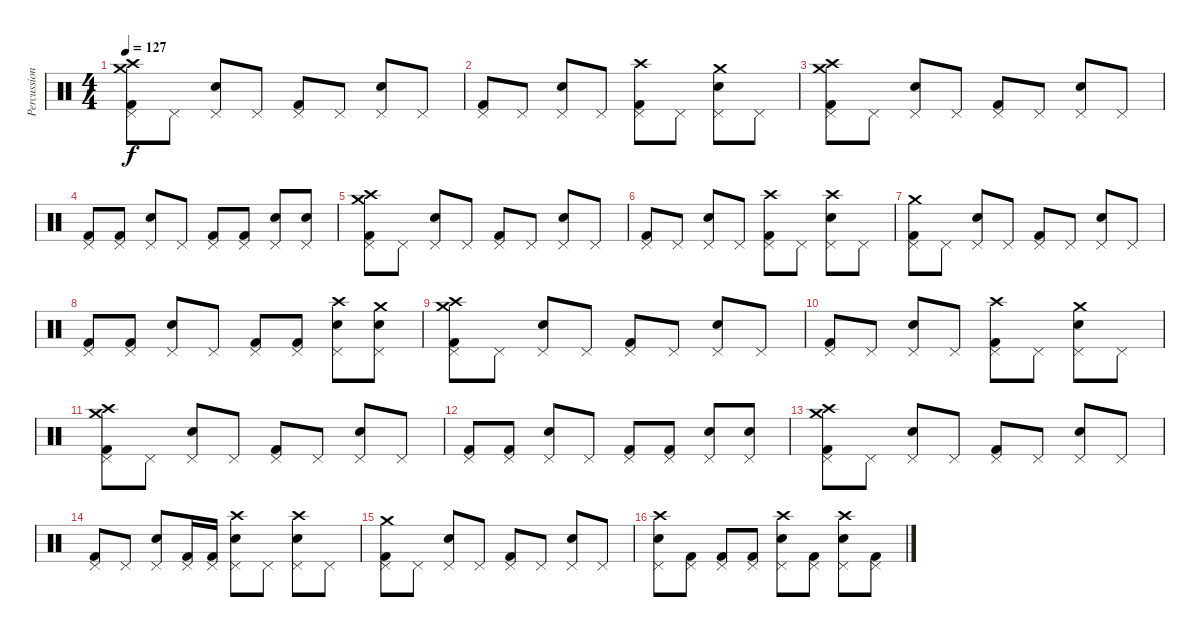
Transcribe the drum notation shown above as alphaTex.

\track ("Percussion" "Percussion") {instrument percussion}
\staff {score}
\articulation defaults
\ts (4 4)
\tempo 127
\clef neutral
\ks c
("Crash medium (hit)" "Crash high (hit)" "Pedal Hi-Hat (hit)" "Kick (hit) 2").8{dy f} "Pedal Hi-Hat (hit)".8 ("Pedal Hi-Hat (hit)" "Snare (hit) 2").8 "Pedal Hi-Hat (hit)".8 ("Pedal Hi-Hat (hit)" "Kick (hit) 2").8 "Pedal Hi-Hat (hit)".8 ("Pedal Hi-Hat (hit)" "Snare (hit) 2").8 "Pedal Hi-Hat (hit)".8 |
("Pedal Hi-Hat (hit)" "Kick (hit) 2").8 "Pedal Hi-Hat (hit)".8 ("Pedal Hi-Hat (hit)" "Snare (hit) 2").8 "Pedal Hi-Hat (hit)".8 ("Crash high (hit)" "Pedal Hi-Hat (hit)" "Kick (hit) 2").8 "Pedal Hi-Hat (hit)".8 ("Crash medium (hit)" "Pedal Hi-Hat (hit)" "Snare (hit) 2").8 "Pedal Hi-Hat (hit)".8 |
("Crash medium (hit)" "Crash high (hit)" "Pedal Hi-Hat (hit)" "Kick (hit) 2").8 "Pedal Hi-Hat (hit)".8 ("Pedal Hi-Hat (hit)" "Snare (hit) 2").8 "Pedal Hi-Hat (hit)".8 ("Pedal Hi-Hat (hit)" "Kick (hit) 2").8 "Pedal Hi-Hat (hit)".8 ("Pedal Hi-Hat (hit)" "Snare (hit) 2").8 "Pedal Hi-Hat (hit)".8 |
("Pedal Hi-Hat (hit)" "Kick (hit) 2").8 ("Pedal Hi-Hat (hit)" "Kick (hit) 2").8 ("Pedal Hi-Hat (hit)" "Snare (hit) 2").8 "Pedal Hi-Hat (hit)".8 ("Pedal Hi-Hat (hit)" "Kick (hit) 2").8 ("Pedal Hi-Hat (hit)" "Kick (hit) 2").8 ("Pedal Hi-Hat (hit)" "Snare (hit) 2").8 ("Pedal Hi-Hat (hit)" "Snare (hit) 2").8 |
("Crash medium (hit)" "Crash high (hit)" "Pedal Hi-Hat (hit)" "Kick (hit) 2").8 "Pedal Hi-Hat (hit)".8 ("Pedal Hi-Hat (hit)" "Snare (hit) 2").8 "Pedal Hi-Hat (hit)".8 ("Pedal Hi-Hat (hit)" "Kick (hit) 2").8 "Pedal Hi-Hat (hit)".8 ("Pedal Hi-Hat (hit)" "Snare (hit) 2").8 "Pedal Hi-Hat (hit)".8 |
("Pedal Hi-Hat (hit)" "Kick (hit) 2").8 "Pedal Hi-Hat (hit)".8 ("Pedal Hi-Hat (hit)" "Snare (hit) 2").8 "Pedal Hi-Hat (hit)".8 ("Crash high (hit)" "Pedal Hi-Hat (hit)" "Kick (hit) 2").8 "Pedal Hi-Hat (hit)".8 ("Crash high (hit)" "Pedal Hi-Hat (hit)" "Snare (hit) 2").8 "Pedal Hi-Hat (hit)".8 |
("Crash medium (hit)" "Pedal Hi-Hat (hit)" "Kick (hit) 2").8 "Pedal Hi-Hat (hit)".8 ("Pedal Hi-Hat (hit)" "Snare (hit) 2").8 "Pedal Hi-Hat (hit)".8 ("Pedal Hi-Hat (hit)" "Kick (hit) 2").8 "Pedal Hi-Hat (hit)".8 ("Pedal Hi-Hat (hit)" "Snare (hit) 2").8 "Pedal Hi-Hat (hit)".8 |
("Pedal Hi-Hat (hit)" "Kick (hit) 2").8 ("Pedal Hi-Hat (hit)" "Kick (hit) 2").8 ("Pedal Hi-Hat (hit)" "Snare (hit) 2").8 "Pedal Hi-Hat (hit)".8 ("Pedal Hi-Hat (hit)" "Kick (hit) 2").8 ("Pedal Hi-Hat (hit)" "Kick (hit) 2").8 ("Crash high (hit)" "Pedal Hi-Hat (hit)" "Snare (hit) 2").8 ("Crash medium (hit)" "Pedal Hi-Hat (hit)" "Snare (hit) 2").8 |
("Crash medium (hit)" "Crash high (hit)" "Pedal Hi-Hat (hit)" "Kick (hit) 2").8 "Pedal Hi-Hat (hit)".8 ("Pedal Hi-Hat (hit)" "Snare (hit) 2").8 "Pedal Hi-Hat (hit)".8 ("Pedal Hi-Hat (hit)" "Kick (hit) 2").8 "Pedal Hi-Hat (hit)".8 ("Pedal Hi-Hat (hit)" "Snare (hit) 2").8 "Pedal Hi-Hat (hit)".8 |
("Pedal Hi-Hat (hit)" "Kick (hit) 2").8 "Pedal Hi-Hat (hit)".8 ("Pedal Hi-Hat (hit)" "Snare (hit) 2").8 "Pedal Hi-Hat (hit)".8 ("Crash high (hit)" "Pedal Hi-Hat (hit)" "Kick (hit) 2").8 "Pedal Hi-Hat (hit)".8 ("Crash medium (hit)" "Pedal Hi-Hat (hit)" "Snare (hit) 2").8 "Pedal Hi-Hat (hit)".8 |
("Crash medium (hit)" "Crash high (hit)" "Pedal Hi-Hat (hit)" "Kick (hit) 2").8 "Pedal Hi-Hat (hit)".8 ("Pedal Hi-Hat (hit)" "Snare (hit) 2").8 "Pedal Hi-Hat (hit)".8 ("Pedal Hi-Hat (hit)" "Kick (hit) 2").8 "Pedal Hi-Hat (hit)".8 ("Pedal Hi-Hat (hit)" "Snare (hit) 2").8 "Pedal Hi-Hat (hit)".8 |
("Pedal Hi-Hat (hit)" "Kick (hit) 2").8 ("Pedal Hi-Hat (hit)" "Kick (hit) 2").8 ("Pedal Hi-Hat (hit)" "Snare (hit) 2").8 "Pedal Hi-Hat (hit)".8 ("Pedal Hi-Hat (hit)" "Kick (hit) 2").8 ("Pedal Hi-Hat (hit)" "Kick (hit) 2").8 ("Pedal Hi-Hat (hit)" "Snare (hit) 2").8 ("Pedal Hi-Hat (hit)" "Snare (hit) 2").8 |
("Crash medium (hit)" "Crash high (hit)" "Pedal Hi-Hat (hit)" "Kick (hit) 2").8 "Pedal Hi-Hat (hit)".8 ("Pedal Hi-Hat (hit)" "Snare (hit) 2").8 "Pedal Hi-Hat (hit)".8 ("Pedal Hi-Hat (hit)" "Kick (hit) 2").8 "Pedal Hi-Hat (hit)".8 ("Pedal Hi-Hat (hit)" "Snare (hit) 2").8 "Pedal Hi-Hat (hit)".8 |
("Pedal Hi-Hat (hit)" "Kick (hit) 2").8 "Pedal Hi-Hat (hit)".8 ("Pedal Hi-Hat (hit)" "Snare (hit) 2").8 ("Pedal Hi-Hat (hit)" "Kick (hit) 2").16 ("Pedal Hi-Hat (hit)" "Kick (hit) 2").16 ("Crash high (hit)" "Pedal Hi-Hat (hit)" "Snare (hit) 2").8 "Pedal Hi-Hat (hit)".8 ("Crash high (hit)" "Pedal Hi-Hat (hit)" "Snare (hit) 2").8 "Pedal Hi-Hat (hit)".8 |
("Crash medium (hit)" "Pedal Hi-Hat (hit)" "Kick (hit) 2").8 "Pedal Hi-Hat (hit)".8 ("Pedal Hi-Hat (hit)" "Snare (hit) 2").8 "Pedal Hi-Hat (hit)".8 ("Pedal Hi-Hat (hit)" "Kick (hit) 2").8 "Pedal Hi-Hat (hit)".8 ("Pedal Hi-Hat (hit)" "Snare (hit) 2").8 "Pedal Hi-Hat (hit)".8 |
("Crash high (hit)" "Pedal Hi-Hat (hit)" "Snare (hit) 2").8 ("Pedal Hi-Hat (hit)" "Kick (hit) 2").8 ("Pedal Hi-Hat (hit)" "Kick (hit) 2").8 ("Pedal Hi-Hat (hit)" "Kick (hit) 2").8 ("Crash high (hit)" "Pedal Hi-Hat (hit)" "Snare (hit) 2").8 ("Pedal Hi-Hat (hit)" "Kick (hit) 2").8 ("Crash high (hit)" "Pedal Hi-Hat (hit)" "Snare (hit) 2").8 ("Pedal Hi-Hat (hit)" "Kick (hit) 2").8
